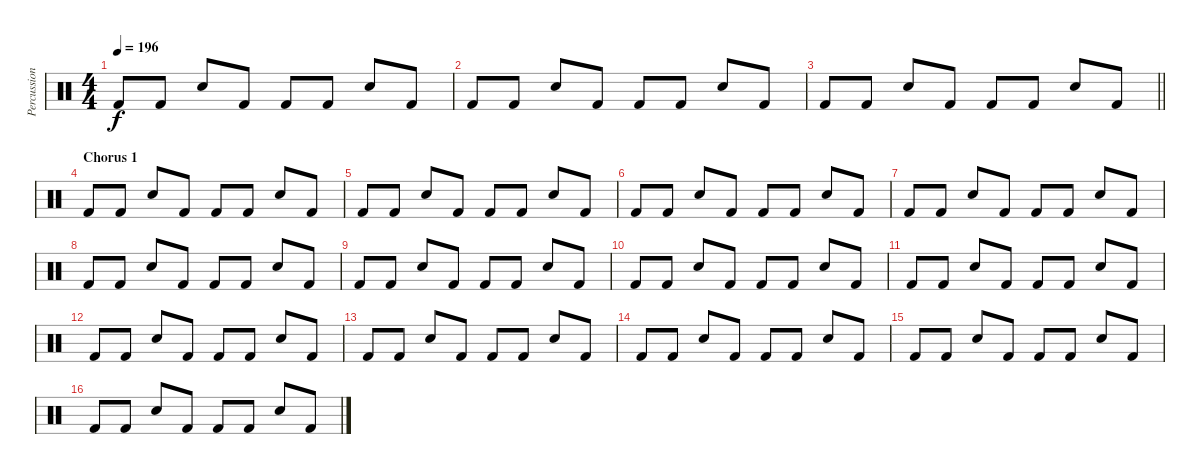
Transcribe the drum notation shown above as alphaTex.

\track ("Percussion" "Percussion") {instrument percussion}
\staff {score}
\articulation defaults
\ts (4 4)
\tempo 196
\clef neutral
\ks c "Kick (hit) 2".8{dy f} "Kick (hit) 2".8 "Electric Snare (hit)".8 "Kick (hit) 2".8 "Kick (hit) 2".8 "Kick (hit) 2".8 "Electric Snare (hit)".8 "Kick (hit) 2".8
|
"Kick (hit) 2".8 "Kick (hit) 2".8 "Electric Snare (hit)".8 "Kick (hit) 2".8 "Kick (hit) 2".8 "Kick (hit) 2".8 "Electric Snare (hit)".8 "Kick (hit) 2".8 |
\barLineRight lightlight "Kick (hit) 2".8 "Kick (hit) 2".8 "Electric Snare (hit)".8 "Kick (hit) 2".8 "Kick (hit) 2".8 "Kick (hit) 2".8 "Electric Snare (hit)".8 "Kick (hit) 2".8
|
\section ("" "Chorus 1")
"Kick (hit) 2".8 "Kick (hit) 2".8 "Electric Snare (hit)".8 "Kick (hit) 2".8 "Kick (hit) 2".8 "Kick (hit) 2".8 "Electric Snare (hit)".8 "Kick (hit) 2".8 |
"Kick (hit) 2".8 "Kick (hit) 2".8 "Electric Snare (hit)".8 "Kick (hit) 2".8 "Kick (hit) 2".8 "Kick (hit) 2".8 "Electric Snare (hit)".8 "Kick (hit) 2".8 |
"Kick (hit) 2".8 "Kick (hit) 2".8 "Electric Snare (hit)".8 "Kick (hit) 2".8 "Kick (hit) 2".8 "Kick (hit) 2".8 "Electric Snare (hit)".8 "Kick (hit) 2".8 |
"Kick (hit) 2".8 "Kick (hit) 2".8 "Electric Snare (hit)".8 "Kick (hit) 2".8 "Kick (hit) 2".8 "Kick (hit) 2".8 "Electric Snare (hit)".8 "Kick (hit) 2".8 |
"Kick (hit) 2".8 "Kick (hit) 2".8 "Electric Snare (hit)".8 "Kick (hit) 2".8 "Kick (hit) 2".8 "Kick (hit) 2".8 "Electric Snare (hit)".8 "Kick (hit) 2".8 |
"Kick (hit) 2".8 "Kick (hit) 2".8 "Electric Snare (hit)".8 "Kick (hit) 2".8 "Kick (hit) 2".8 "Kick (hit) 2".8 "Electric Snare (hit)".8 "Kick (hit) 2".8 |
"Kick (hit) 2".8 "Kick (hit) 2".8 "Electric Snare (hit)".8 "Kick (hit) 2".8 "Kick (hit) 2".8 "Kick (hit) 2".8 "Electric Snare (hit)".8 "Kick (hit) 2".8 |
"Kick (hit) 2".8 "Kick (hit) 2".8 "Electric Snare (hit)".8 "Kick (hit) 2".8 "Kick (hit) 2".8 "Kick (hit) 2".8 "Electric Snare (hit)".8 "Kick (hit) 2".8 |
"Kick (hit) 2".8 "Kick (hit) 2".8 "Electric Snare (hit)".8 "Kick (hit) 2".8 "Kick (hit) 2".8 "Kick (hit) 2".8 "Electric Snare (hit)".8 "Kick (hit) 2".8 |
"Kick (hit) 2".8 "Kick (hit) 2".8 "Electric Snare (hit)".8 "Kick (hit) 2".8 "Kick (hit) 2".8 "Kick (hit) 2".8 "Electric Snare (hit)".8 "Kick (hit) 2".8 |
"Kick (hit) 2".8 "Kick (hit) 2".8 "Electric Snare (hit)".8 "Kick (hit) 2".8 "Kick (hit) 2".8 "Kick (hit) 2".8 "Electric Snare (hit)".8 "Kick (hit) 2".8 |
"Kick (hit) 2".8 "Kick (hit) 2".8 "Electric Snare (hit)".8 "Kick (hit) 2".8 "Kick (hit) 2".8 "Kick (hit) 2".8 "Electric Snare (hit)".8 "Kick (hit) 2".8 |
"Kick (hit) 2".8 "Kick (hit) 2".8 "Electric Snare (hit)".8 "Kick (hit) 2".8 "Kick (hit) 2".8 "Kick (hit) 2".8 "Electric Snare (hit)".8 "Kick (hit) 2".8
